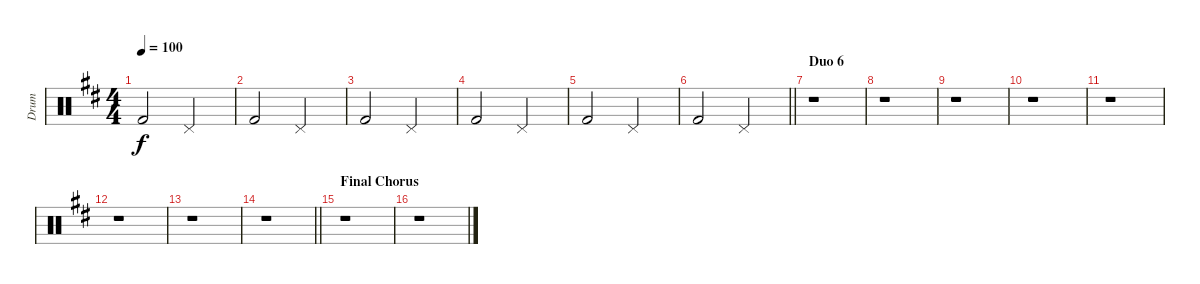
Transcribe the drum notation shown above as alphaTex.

\track ("Drum" "Drum") {instrument percussion}
\staff {score}
\articulation defaults
\ts (4 4)
\tempo 100
\clef neutral
\ks d "Kick (hit) 2".2{dy f} "Pedal Hi-Hat (hit)".2
|
"Kick (hit) 2".2 "Pedal Hi-Hat (hit)".2 |
"Kick (hit) 2".2 "Pedal Hi-Hat (hit)".2 |
"Kick (hit) 2".2 "Pedal Hi-Hat (hit)".2 |
"Kick (hit) 2".2 "Pedal Hi-Hat (hit)".2 |
\barLineRight lightlight "Kick (hit) 2".2 "Pedal Hi-Hat (hit)".2
|
\section ("" "Duo 6")
r.1 |
r.1 |
r.1 |
r.1 |
r.1 |
r.1 |
r.1 |
\barLineRight lightlight
r.1 |
\section ("" "Final Chorus")
r.1 |
r.1
